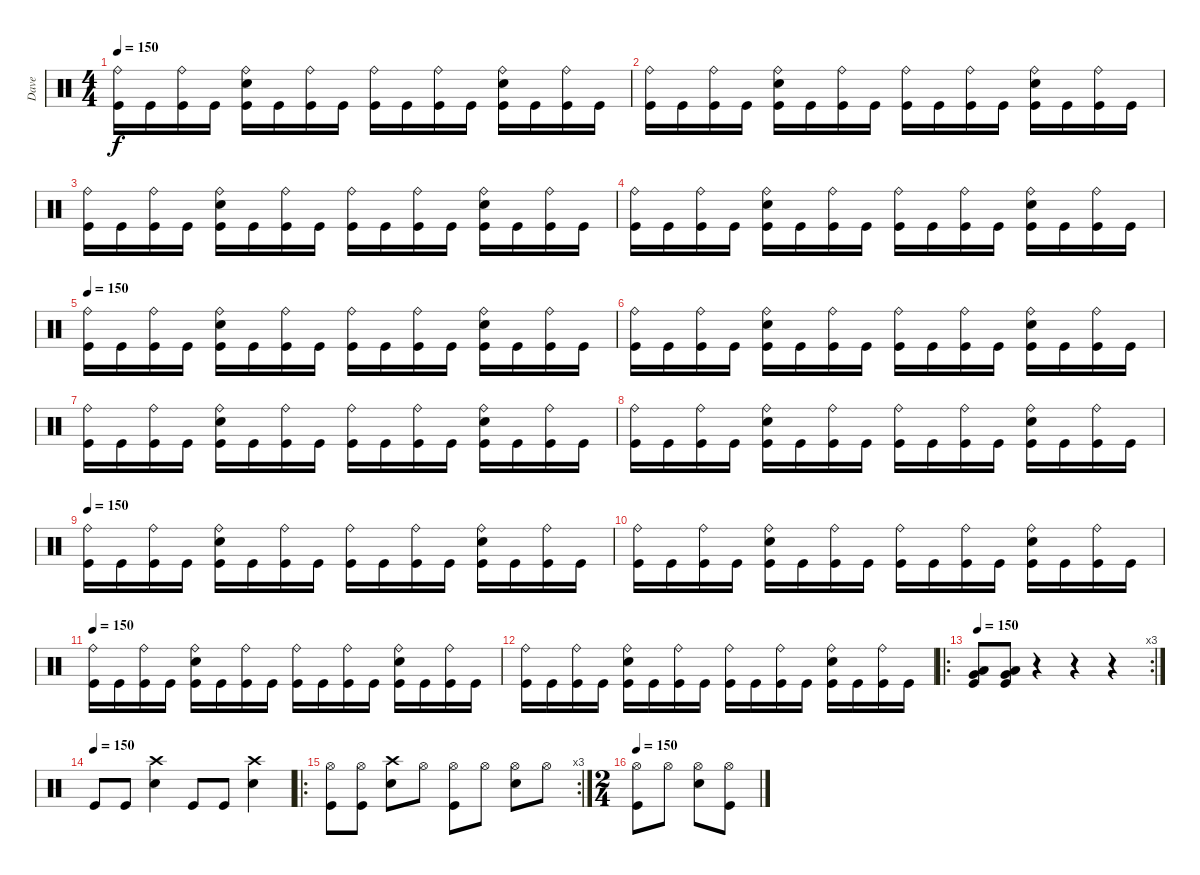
\track ("Dave" "Dave") {instrument percussion}
\staff {score}
\articulation defaults
\ts (4 4)
\tempo 150
\clef neutral
\ks c
("Ride (bell)" "Kick (hit)").16{dy f} "Kick (hit)".16 ("Ride (bell)" "Kick (hit)").16 "Kick (hit)".16 ("Ride (bell)" "Snare (hit) 2" "Kick (hit)").16 "Kick (hit)".16 ("Ride (bell)" "Kick (hit)").16 "Kick (hit)".16 ("Ride (bell)" "Kick (hit)").16 "Kick (hit)".16 ("Ride (bell)" "Kick (hit)").16 "Kick (hit)".16 ("Ride (bell)" "Snare (hit) 2" "Kick (hit)").16 "Kick (hit)".16 ("Ride (bell)" "Kick (hit)").16 "Kick (hit)".16 |
("Ride (bell)" "Kick (hit)").16 "Kick (hit)".16 ("Ride (bell)" "Kick (hit)").16 "Kick (hit)".16 ("Ride (bell)" "Snare (hit) 2" "Kick (hit)").16 "Kick (hit)".16 ("Ride (bell)" "Kick (hit)").16 "Kick (hit)".16 ("Ride (bell)" "Kick (hit)").16 "Kick (hit)".16 ("Ride (bell)" "Kick (hit)").16 "Kick (hit)".16 ("Ride (bell)" "Snare (hit) 2" "Kick (hit)").16 "Kick (hit)".16 ("Ride (bell)" "Kick (hit)").16 "Kick (hit)".16 |
("Ride (bell)" "Kick (hit)").16 "Kick (hit)".16 ("Ride (bell)" "Kick (hit)").16 "Kick (hit)".16 ("Ride (bell)" "Snare (hit) 2" "Kick (hit)").16 "Kick (hit)".16 ("Ride (bell)" "Kick (hit)").16 "Kick (hit)".16 ("Ride (bell)" "Kick (hit)").16 "Kick (hit)".16 ("Ride (bell)" "Kick (hit)").16 "Kick (hit)".16 ("Ride (bell)" "Snare (hit) 2" "Kick (hit)").16 "Kick (hit)".16 ("Ride (bell)" "Kick (hit)").16 "Kick (hit)".16 |
("Ride (bell)" "Kick (hit)").16 "Kick (hit)".16 ("Ride (bell)" "Kick (hit)").16 "Kick (hit)".16 ("Ride (bell)" "Snare (hit) 2" "Kick (hit)").16 "Kick (hit)".16 ("Ride (bell)" "Kick (hit)").16 "Kick (hit)".16 ("Ride (bell)" "Kick (hit)").16 "Kick (hit)".16 ("Ride (bell)" "Kick (hit)").16 "Kick (hit)".16 ("Ride (bell)" "Snare (hit) 2" "Kick (hit)").16 "Kick (hit)".16 ("Ride (bell)" "Kick (hit)").16 "Kick (hit)".16 |
\tempo 150
("Ride (bell)" "Kick (hit)").16 "Kick (hit)".16 ("Ride (bell)" "Kick (hit)").16 "Kick (hit)".16 ("Ride (bell)" "Snare (hit) 2" "Kick (hit)").16 "Kick (hit)".16 ("Ride (bell)" "Kick (hit)").16 "Kick (hit)".16 ("Ride (bell)" "Kick (hit)").16 "Kick (hit)".16 ("Ride (bell)" "Kick (hit)").16 "Kick (hit)".16 ("Ride (bell)" "Snare (hit) 2" "Kick (hit)").16 "Kick (hit)".16 ("Ride (bell)" "Kick (hit)").16 "Kick (hit)".16 |
("Ride (bell)" "Kick (hit)").16 "Kick (hit)".16 ("Ride (bell)" "Kick (hit)").16 "Kick (hit)".16 ("Ride (bell)" "Snare (hit) 2" "Kick (hit)").16 "Kick (hit)".16 ("Ride (bell)" "Kick (hit)").16 "Kick (hit)".16 ("Ride (bell)" "Kick (hit)").16 "Kick (hit)".16 ("Ride (bell)" "Kick (hit)").16 "Kick (hit)".16 ("Ride (bell)" "Snare (hit) 2" "Kick (hit)").16 "Kick (hit)".16 ("Ride (bell)" "Kick (hit)").16 "Kick (hit)".16 |
("Ride (bell)" "Kick (hit)").16 "Kick (hit)".16 ("Ride (bell)" "Kick (hit)").16 "Kick (hit)".16 ("Ride (bell)" "Snare (hit) 2" "Kick (hit)").16 "Kick (hit)".16 ("Ride (bell)" "Kick (hit)").16 "Kick (hit)".16 ("Ride (bell)" "Kick (hit)").16 "Kick (hit)".16 ("Ride (bell)" "Kick (hit)").16 "Kick (hit)".16 ("Ride (bell)" "Snare (hit) 2" "Kick (hit)").16 "Kick (hit)".16 ("Ride (bell)" "Kick (hit)").16 "Kick (hit)".16 |
("Ride (bell)" "Kick (hit)").16 "Kick (hit)".16 ("Ride (bell)" "Kick (hit)").16 "Kick (hit)".16 ("Ride (bell)" "Snare (hit) 2" "Kick (hit)").16 "Kick (hit)".16 ("Ride (bell)" "Kick (hit)").16 "Kick (hit)".16 ("Ride (bell)" "Kick (hit)").16 "Kick (hit)".16 ("Ride (bell)" "Kick (hit)").16 "Kick (hit)".16 ("Ride (bell)" "Snare (hit) 2" "Kick (hit)").16 "Kick (hit)".16 ("Ride (bell)" "Kick (hit)").16 "Kick (hit)".16 |
\tempo 150
("Ride (bell)" "Kick (hit)").16 "Kick (hit)".16 ("Ride (bell)" "Kick (hit)").16 "Kick (hit)".16 ("Ride (bell)" "Snare (hit) 2" "Kick (hit)").16 "Kick (hit)".16 ("Ride (bell)" "Kick (hit)").16 "Kick (hit)".16 ("Ride (bell)" "Kick (hit)").16 "Kick (hit)".16 ("Ride (bell)" "Kick (hit)").16 "Kick (hit)".16 ("Ride (bell)" "Snare (hit) 2" "Kick (hit)").16 "Kick (hit)".16 ("Ride (bell)" "Kick (hit)").16 "Kick (hit)".16 |
("Ride (bell)" "Kick (hit)").16 "Kick (hit)".16 ("Ride (bell)" "Kick (hit)").16 "Kick (hit)".16 ("Ride (bell)" "Snare (hit) 2" "Kick (hit)").16 "Kick (hit)".16 ("Ride (bell)" "Kick (hit)").16 "Kick (hit)".16 ("Ride (bell)" "Kick (hit)").16 "Kick (hit)".16 ("Ride (bell)" "Kick (hit)").16 "Kick (hit)".16 ("Ride (bell)" "Snare (hit) 2" "Kick (hit)").16 "Kick (hit)".16 ("Ride (bell)" "Kick (hit)").16 "Kick (hit)".16 |
\tempo 150
("Ride (bell)" "Kick (hit)").16 "Kick (hit)".16 ("Ride (bell)" "Kick (hit)").16 "Kick (hit)".16 ("Ride (bell)" "Snare (hit) 2" "Kick (hit)").16 "Kick (hit)".16 ("Ride (bell)" "Kick (hit)").16 "Kick (hit)".16 ("Ride (bell)" "Kick (hit)").16 "Kick (hit)".16 ("Ride (bell)" "Kick (hit)").16 "Kick (hit)".16 ("Ride (bell)" "Snare (hit) 2" "Kick (hit)").16 "Kick (hit)".16 ("Ride (bell)" "Kick (hit)").16 "Kick (hit)".16 |
("Ride (bell)" "Kick (hit)").16 "Kick (hit)".16 ("Ride (bell)" "Kick (hit)").16 "Kick (hit)".16 ("Ride (bell)" "Snare (hit) 2" "Kick (hit)").16 "Kick (hit)".16 ("Ride (bell)" "Kick (hit)").16 "Kick (hit)".16 ("Ride (bell)" "Kick (hit)").16 "Kick (hit)".16 ("Ride (bell)" "Kick (hit)").16 "Kick (hit)".16 ("Ride (bell)" "Snare (hit) 2" "Kick (hit)").16 "Kick (hit)".16 ("Ride (bell)" "Kick (hit)").16 "Kick (hit)".16 |
\ro
\rc 3
\tempo 150
("Low Tom (hit)" "Very Low Tom (hit)" "Kick (hit)").8 ("Low Tom (hit)" "Very Low Tom (hit)" "Kick (hit)").8 r.4 r.4 r.4 |
\tempo (150)
"Kick (hit)".8 "Kick (hit)".8 ("Crash high (hit)" "Snare (hit) 2").4 "Kick (hit)".8 "Kick (hit)".8 ("Crash high (hit)" "Snare (hit) 2").4 |
\ro
\rc 3
("Hi-Hat (open)" "Kick (hit)").8 ("Hi-Hat (open)" "Kick (hit)").8 ("Crash high (hit)" "Snare (hit) 2").8 "Hi-Hat (open)".8 ("Hi-Hat (open)" "Kick (hit)").8 "Hi-Hat (open)".8 ("Hi-Hat (open)" "Snare (hit) 2").8 "Hi-Hat (open)".8 |
\ts (2 4)
\tempo 150
("Hi-Hat (open)" "Kick (hit)").8 "Hi-Hat (open)".8 ("Hi-Hat (open)" "Snare (hit) 2").8 ("Hi-Hat (open)" "Kick (hit)").8
